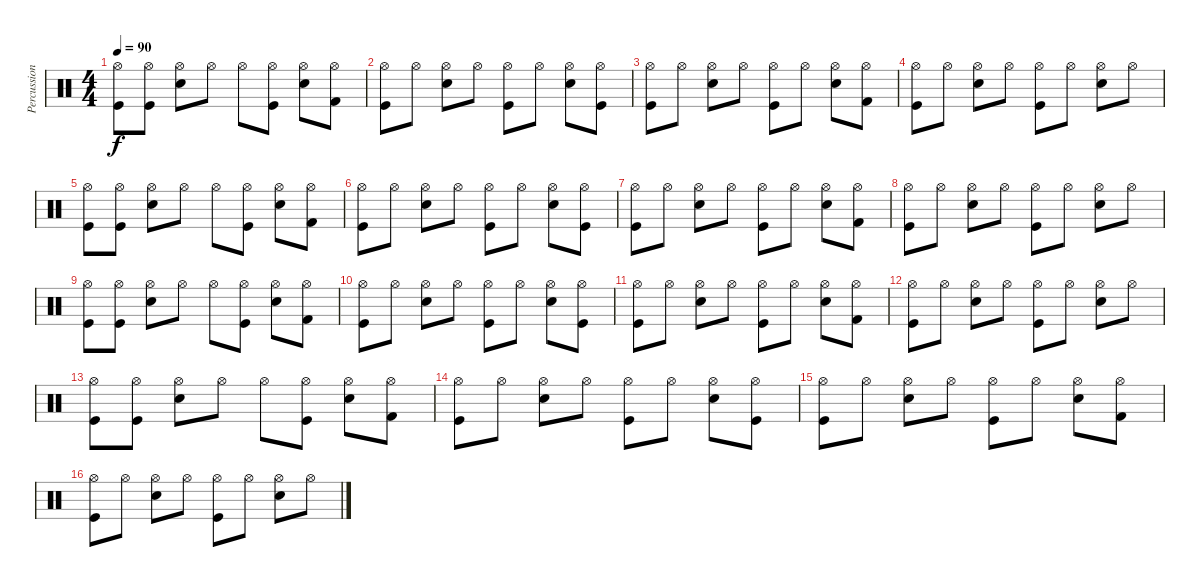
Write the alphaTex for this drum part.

\track ("Percussion" "Percussion") {instrument percussion}
\staff {score}
\articulation defaults
\ts (4 4)
\tempo 90
\clef neutral
\ks c
("Hi-Hat (open)" "Kick (hit)").8{dy f} ("Hi-Hat (open)" "Kick (hit)").8 ("Hi-Hat (open)" "Electric Snare (hit)").8 "Hi-Hat (open)".8 "Hi-Hat (open)".8 ("Hi-Hat (open)" "Kick (hit)").8 ("Hi-Hat (open)" "Electric Snare (hit)").8 ("Hi-Hat (open)" "Kick (hit) 2").8 |
("Hi-Hat (open)" "Kick (hit)").8 "Hi-Hat (open)".8 ("Hi-Hat (open)" "Electric Snare (hit)").8 "Hi-Hat (open)".8 ("Hi-Hat (open)" "Kick (hit)").8 "Hi-Hat (open)".8 ("Hi-Hat (open)" "Electric Snare (hit)").8 ("Hi-Hat (open)" "Kick (hit)").8 |
("Hi-Hat (open)" "Kick (hit)").8 "Hi-Hat (open)".8 ("Hi-Hat (open)" "Electric Snare (hit)").8 "Hi-Hat (open)".8 ("Hi-Hat (open)" "Kick (hit)").8 "Hi-Hat (open)".8 ("Hi-Hat (open)" "Electric Snare (hit)").8 ("Hi-Hat (open)" "Kick (hit) 2").8 |
("Hi-Hat (open)" "Kick (hit)").8 "Hi-Hat (open)".8 ("Hi-Hat (open)" "Electric Snare (hit)").8 "Hi-Hat (open)".8 ("Hi-Hat (open)" "Kick (hit)").8 "Hi-Hat (open)".8 ("Hi-Hat (open)" "Electric Snare (hit)").8 "Hi-Hat (open)".8 |
("Hi-Hat (open)" "Kick (hit)").8 ("Hi-Hat (open)" "Kick (hit)").8 ("Hi-Hat (open)" "Electric Snare (hit)").8 "Hi-Hat (open)".8 "Hi-Hat (open)".8 ("Hi-Hat (open)" "Kick (hit)").8 ("Hi-Hat (open)" "Electric Snare (hit)").8 ("Hi-Hat (open)" "Kick (hit) 2").8 |
("Hi-Hat (open)" "Kick (hit)").8 "Hi-Hat (open)".8 ("Hi-Hat (open)" "Electric Snare (hit)").8 "Hi-Hat (open)".8 ("Hi-Hat (open)" "Kick (hit)").8 "Hi-Hat (open)".8 ("Hi-Hat (open)" "Electric Snare (hit)").8 ("Hi-Hat (open)" "Kick (hit)").8 |
("Hi-Hat (open)" "Kick (hit)").8 "Hi-Hat (open)".8 ("Hi-Hat (open)" "Electric Snare (hit)").8 "Hi-Hat (open)".8 ("Hi-Hat (open)" "Kick (hit)").8 "Hi-Hat (open)".8 ("Hi-Hat (open)" "Electric Snare (hit)").8 ("Hi-Hat (open)" "Kick (hit) 2").8 |
("Hi-Hat (open)" "Kick (hit)").8 "Hi-Hat (open)".8 ("Hi-Hat (open)" "Electric Snare (hit)").8 "Hi-Hat (open)".8 ("Hi-Hat (open)" "Kick (hit)").8 "Hi-Hat (open)".8 ("Hi-Hat (open)" "Electric Snare (hit)").8 "Hi-Hat (open)".8 |
("Hi-Hat (open)" "Kick (hit)").8 ("Hi-Hat (open)" "Kick (hit)").8 ("Hi-Hat (open)" "Electric Snare (hit)").8 "Hi-Hat (open)".8 "Hi-Hat (open)".8 ("Hi-Hat (open)" "Kick (hit)").8 ("Hi-Hat (open)" "Electric Snare (hit)").8 ("Hi-Hat (open)" "Kick (hit) 2").8 |
("Hi-Hat (open)" "Kick (hit)").8 "Hi-Hat (open)".8 ("Hi-Hat (open)" "Electric Snare (hit)").8 "Hi-Hat (open)".8 ("Hi-Hat (open)" "Kick (hit)").8 "Hi-Hat (open)".8 ("Hi-Hat (open)" "Electric Snare (hit)").8 ("Hi-Hat (open)" "Kick (hit)").8 |
("Hi-Hat (open)" "Kick (hit)").8 "Hi-Hat (open)".8 ("Hi-Hat (open)" "Electric Snare (hit)").8 "Hi-Hat (open)".8 ("Hi-Hat (open)" "Kick (hit)").8 "Hi-Hat (open)".8 ("Hi-Hat (open)" "Electric Snare (hit)").8 ("Hi-Hat (open)" "Kick (hit) 2").8 |
("Hi-Hat (open)" "Kick (hit)").8 "Hi-Hat (open)".8 ("Hi-Hat (open)" "Electric Snare (hit)").8 "Hi-Hat (open)".8 ("Hi-Hat (open)" "Kick (hit)").8 "Hi-Hat (open)".8 ("Hi-Hat (open)" "Electric Snare (hit)").8 "Hi-Hat (open)".8 |
("Hi-Hat (open)" "Kick (hit)").8 ("Hi-Hat (open)" "Kick (hit)").8 ("Hi-Hat (open)" "Electric Snare (hit)").8 "Hi-Hat (open)".8 "Hi-Hat (open)".8 ("Hi-Hat (open)" "Kick (hit)").8 ("Hi-Hat (open)" "Electric Snare (hit)").8 ("Hi-Hat (open)" "Kick (hit) 2").8 |
("Hi-Hat (open)" "Kick (hit)").8 "Hi-Hat (open)".8 ("Hi-Hat (open)" "Electric Snare (hit)").8 "Hi-Hat (open)".8 ("Hi-Hat (open)" "Kick (hit)").8 "Hi-Hat (open)".8 ("Hi-Hat (open)" "Electric Snare (hit)").8 ("Hi-Hat (open)" "Kick (hit)").8 |
("Hi-Hat (open)" "Kick (hit)").8 "Hi-Hat (open)".8 ("Hi-Hat (open)" "Electric Snare (hit)").8 "Hi-Hat (open)".8 ("Hi-Hat (open)" "Kick (hit)").8 "Hi-Hat (open)".8 ("Hi-Hat (open)" "Electric Snare (hit)").8 ("Hi-Hat (open)" "Kick (hit) 2").8 |
("Hi-Hat (open)" "Kick (hit)").8 "Hi-Hat (open)".8 ("Hi-Hat (open)" "Electric Snare (hit)").8 "Hi-Hat (open)".8 ("Hi-Hat (open)" "Kick (hit)").8 "Hi-Hat (open)".8 ("Hi-Hat (open)" "Electric Snare (hit)").8 "Hi-Hat (open)".8
